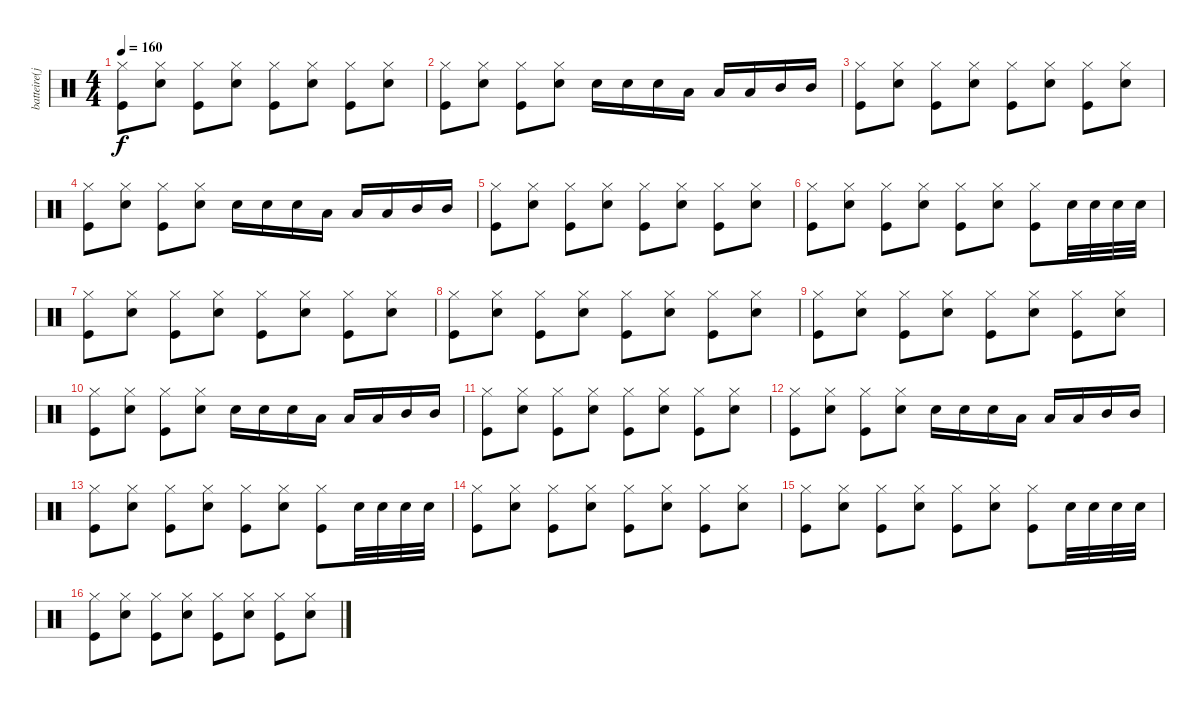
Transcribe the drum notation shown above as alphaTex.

\track ("batteire(jesus bonehead)" "batteire(j") {instrument percussion}
\staff {score}
\articulation defaults
\ts (4 4)
\tempo 160
\clef neutral
\ks c
("Hi-Hat (closed)" "Kick (hit)").8{dy f} ("Hi-Hat (closed)" "Snare (hit) 2").8 ("Hi-Hat (closed)" "Kick (hit)").8 ("Hi-Hat (closed)" "Snare (hit) 2").8 ("Hi-Hat (closed)" "Kick (hit)").8 ("Hi-Hat (closed)" "Snare (hit) 2").8 ("Hi-Hat (closed)" "Kick (hit)").8 ("Hi-Hat (closed)" "Snare (hit) 2").8 |
("Hi-Hat (closed)" "Kick (hit)").8 ("Hi-Hat (closed)" "Snare (hit) 2").8 ("Hi-Hat (closed)" "Kick (hit)").8 ("Hi-Hat (closed)" "Snare (hit) 2").8 "Snare (hit) 2".16 "Snare (hit) 2".16 "Snare (hit) 2".16 "Low Tom (hit)".16 "Low Tom (hit)".16 "Low Tom (hit)".16 "Mid Tom (hit)".16 "Mid Tom (hit)".16 |
("Hi-Hat (closed)" "Kick (hit)").8 ("Hi-Hat (closed)" "Snare (hit) 2").8 ("Hi-Hat (closed)" "Kick (hit)").8 ("Hi-Hat (closed)" "Snare (hit) 2").8 ("Hi-Hat (closed)" "Kick (hit)").8 ("Hi-Hat (closed)" "Snare (hit) 2").8 ("Hi-Hat (closed)" "Kick (hit)").8 ("Hi-Hat (closed)" "Snare (hit) 2").8 |
("Hi-Hat (closed)" "Kick (hit)").8 ("Hi-Hat (closed)" "Snare (hit) 2").8 ("Hi-Hat (closed)" "Kick (hit)").8 ("Hi-Hat (closed)" "Snare (hit) 2").8 "Snare (hit) 2".16 "Snare (hit) 2".16 "Snare (hit) 2".16 "Low Tom (hit)".16 "Low Tom (hit)".16 "Low Tom (hit)".16 "Mid Tom (hit)".16 "Mid Tom (hit)".16 |
("Hi-Hat (closed)" "Kick (hit)").8 ("Hi-Hat (closed)" "Snare (hit) 2").8 ("Hi-Hat (closed)" "Kick (hit)").8 ("Hi-Hat (closed)" "Snare (hit) 2").8 ("Hi-Hat (closed)" "Kick (hit)").8 ("Hi-Hat (closed)" "Snare (hit) 2").8 ("Hi-Hat (closed)" "Kick (hit)").8 ("Hi-Hat (closed)" "Snare (hit) 2").8 |
("Hi-Hat (closed)" "Kick (hit)").8 ("Hi-Hat (closed)" "Snare (hit) 2").8 ("Hi-Hat (closed)" "Kick (hit)").8 ("Hi-Hat (closed)" "Snare (hit) 2").8 ("Hi-Hat (closed)" "Kick (hit)").8 ("Hi-Hat (closed)" "Snare (hit) 2").8 ("Hi-Hat (closed)" "Kick (hit)").8 "Snare (hit) 2".32 "Snare (hit) 2".32 "Snare (hit) 2".32 "Snare (hit) 2".32 |
("Hi-Hat (closed)" "Kick (hit)").8 ("Hi-Hat (closed)" "Snare (hit) 2").8 ("Hi-Hat (closed)" "Kick (hit)").8 ("Hi-Hat (closed)" "Snare (hit) 2").8 ("Hi-Hat (closed)" "Kick (hit)").8 ("Hi-Hat (closed)" "Snare (hit) 2").8 ("Hi-Hat (closed)" "Kick (hit)").8 ("Hi-Hat (closed)" "Snare (hit) 2").8 |
("Hi-Hat (closed)" "Kick (hit)").8 ("Hi-Hat (closed)" "Snare (hit) 2").8 ("Hi-Hat (closed)" "Kick (hit)").8 ("Hi-Hat (closed)" "Snare (hit) 2").8 ("Hi-Hat (closed)" "Kick (hit)").8 ("Hi-Hat (closed)" "Snare (hit) 2").8 ("Hi-Hat (closed)" "Kick (hit)").8 ("Hi-Hat (closed)" "Snare (hit) 2").8 |
("Hi-Hat (closed)" "Kick (hit)").8 ("Hi-Hat (closed)" "Snare (hit) 2").8 ("Hi-Hat (closed)" "Kick (hit)").8 ("Hi-Hat (closed)" "Snare (hit) 2").8 ("Hi-Hat (closed)" "Kick (hit)").8 ("Hi-Hat (closed)" "Snare (hit) 2").8 ("Hi-Hat (closed)" "Kick (hit)").8 ("Hi-Hat (closed)" "Snare (hit) 2").8 |
("Hi-Hat (closed)" "Kick (hit)").8 ("Hi-Hat (closed)" "Snare (hit) 2").8 ("Hi-Hat (closed)" "Kick (hit)").8 ("Hi-Hat (closed)" "Snare (hit) 2").8 "Snare (hit) 2".16 "Snare (hit) 2".16 "Snare (hit) 2".16 "Low Tom (hit)".16 "Low Tom (hit)".16 "Low Tom (hit)".16 "Mid Tom (hit)".16 "Mid Tom (hit)".16 |
("Hi-Hat (closed)" "Kick (hit)").8 ("Hi-Hat (closed)" "Snare (hit) 2").8 ("Hi-Hat (closed)" "Kick (hit)").8 ("Hi-Hat (closed)" "Snare (hit) 2").8 ("Hi-Hat (closed)" "Kick (hit)").8 ("Hi-Hat (closed)" "Snare (hit) 2").8 ("Hi-Hat (closed)" "Kick (hit)").8 ("Hi-Hat (closed)" "Snare (hit) 2").8 |
("Hi-Hat (closed)" "Kick (hit)").8 ("Hi-Hat (closed)" "Snare (hit) 2").8 ("Hi-Hat (closed)" "Kick (hit)").8 ("Hi-Hat (closed)" "Snare (hit) 2").8 "Snare (hit) 2".16 "Snare (hit) 2".16 "Snare (hit) 2".16 "Low Tom (hit)".16 "Low Tom (hit)".16 "Low Tom (hit)".16 "Mid Tom (hit)".16 "Mid Tom (hit)".16 |
("Hi-Hat (closed)" "Kick (hit)").8 ("Hi-Hat (closed)" "Snare (hit) 2").8 ("Hi-Hat (closed)" "Kick (hit)").8 ("Hi-Hat (closed)" "Snare (hit) 2").8 ("Hi-Hat (closed)" "Kick (hit)").8 ("Hi-Hat (closed)" "Snare (hit) 2").8 ("Hi-Hat (closed)" "Kick (hit)").8 "Snare (hit) 2".32 "Snare (hit) 2".32 "Snare (hit) 2".32 "Snare (hit) 2".32 |
("Hi-Hat (closed)" "Kick (hit)").8 ("Hi-Hat (closed)" "Snare (hit) 2").8 ("Hi-Hat (closed)" "Kick (hit)").8 ("Hi-Hat (closed)" "Snare (hit) 2").8 ("Hi-Hat (closed)" "Kick (hit)").8 ("Hi-Hat (closed)" "Snare (hit) 2").8 ("Hi-Hat (closed)" "Kick (hit)").8 ("Hi-Hat (closed)" "Snare (hit) 2").8 |
("Hi-Hat (closed)" "Kick (hit)").8 ("Hi-Hat (closed)" "Snare (hit) 2").8 ("Hi-Hat (closed)" "Kick (hit)").8 ("Hi-Hat (closed)" "Snare (hit) 2").8 ("Hi-Hat (closed)" "Kick (hit)").8 ("Hi-Hat (closed)" "Snare (hit) 2").8 ("Hi-Hat (closed)" "Kick (hit)").8 "Snare (hit) 2".32 "Snare (hit) 2".32 "Snare (hit) 2".32 "Snare (hit) 2".32 |
("Hi-Hat (closed)" "Kick (hit)").8 ("Hi-Hat (closed)" "Snare (hit) 2").8 ("Hi-Hat (closed)" "Kick (hit)").8 ("Hi-Hat (closed)" "Snare (hit) 2").8 ("Hi-Hat (closed)" "Kick (hit)").8 ("Hi-Hat (closed)" "Snare (hit) 2").8 ("Hi-Hat (closed)" "Kick (hit)").8 ("Hi-Hat (closed)" "Snare (hit) 2").8
